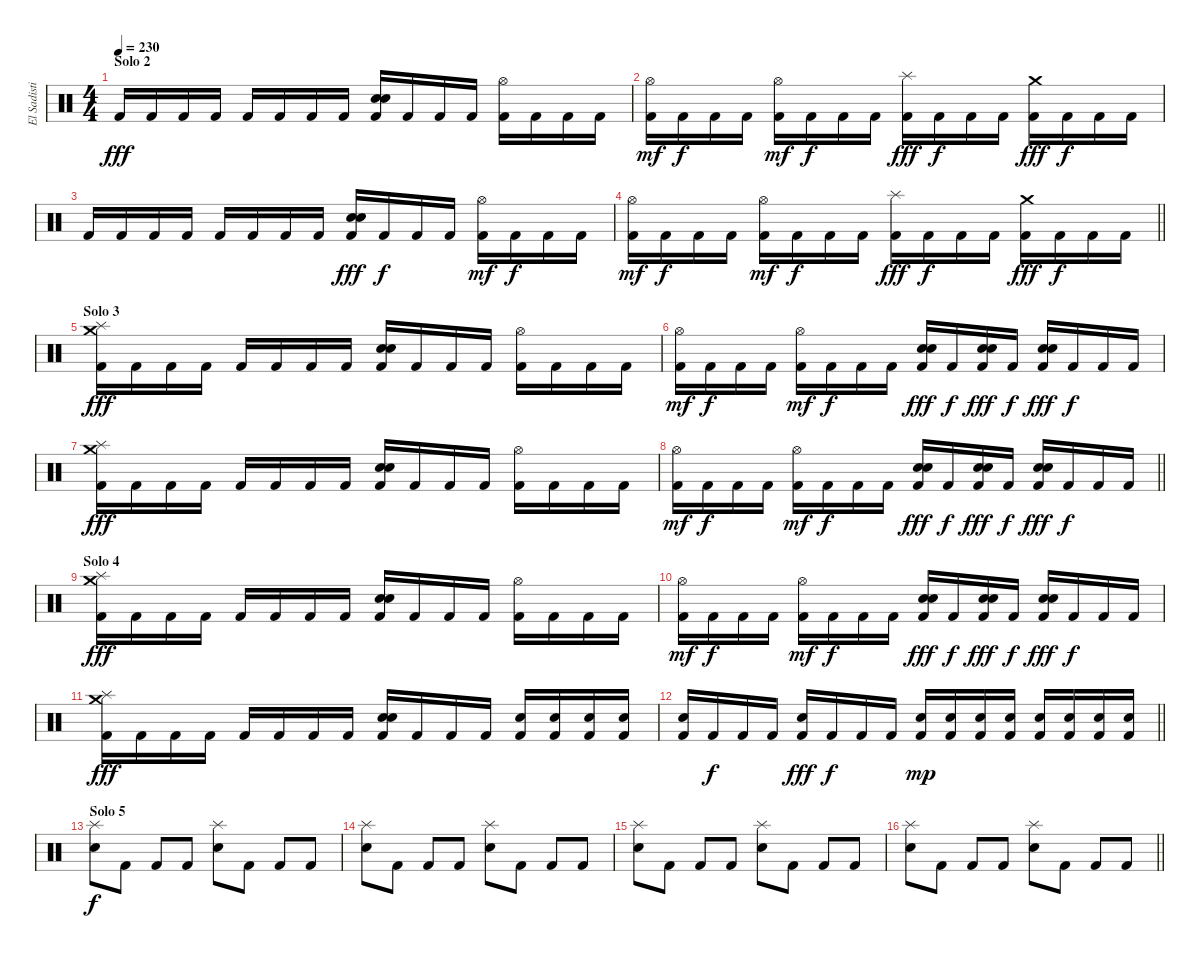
\track ("El Sadistico" "El Sadisti") {instrument percussion}
\staff {score}
\articulation defaults
\ts (4 4)
\section ("" "Solo 2")
\tempo 230
\clef neutral
\ks c "Kick (hit) 2".16{dy fff} "Kick (hit) 2".16 "Kick (hit) 2".16 "Kick (hit) 2".16 "Kick (hit) 2".16 "Kick (hit) 2".16 "Kick (hit) 2".16 "Kick (hit) 2".16
("Snare (hit) 2" "Electric Snare (hit)" "Kick (hit) 2").16 "Kick (hit) 2".16 "Kick (hit) 2".16 "Kick (hit) 2".16 ("Hi-Hat (open)" "Kick (hit) 2").16 "Kick (hit) 2".16 "Kick (hit) 2".16 "Kick (hit) 2".16 |
("Hi-Hat (open)" "Kick (hit) 2").16{dy mf} "Kick (hit) 2".16{dy f} "Kick (hit) 2".16 "Kick (hit) 2".16 ("Hi-Hat (open)" "Kick (hit) 2").16{dy mf} "Kick (hit) 2".16{dy f} "Kick (hit) 2".16 "Kick (hit) 2".16 ("Splash (hit)" "Kick (hit) 2").16{dy fff} "Kick (hit) 2".16{dy f} "Kick (hit) 2".16 "Kick (hit) 2".16 ("Crash medium (hit)" "Kick (hit) 2").16{dy fff} "Kick (hit) 2".16{dy f} "Kick (hit) 2".16 "Kick (hit) 2".16 |
"Kick (hit) 2".16 "Kick (hit) 2".16 "Kick (hit) 2".16 "Kick (hit) 2".16 "Kick (hit) 2".16 "Kick (hit) 2".16 "Kick (hit) 2".16 "Kick (hit) 2".16 ("Snare (hit) 2" "Electric Snare (hit)" "Kick (hit) 2").16{dy fff} "Kick (hit) 2".16{dy f} "Kick (hit) 2".16 "Kick (hit) 2".16 ("Hi-Hat (open)" "Kick (hit) 2").16{dy mf} "Kick (hit) 2".16{dy f} "Kick (hit) 2".16 "Kick (hit) 2".16 |
\barLineRight lightlight
("Hi-Hat (open)" "Kick (hit) 2").16{dy mf} "Kick (hit) 2".16{dy f} "Kick (hit) 2".16 "Kick (hit) 2".16 ("Hi-Hat (open)" "Kick (hit) 2").16{dy mf} "Kick (hit) 2".16{dy f} "Kick (hit) 2".16 "Kick (hit) 2".16 ("Splash (hit)" "Kick (hit) 2").16{dy fff} "Kick (hit) 2".16{dy f} "Kick (hit) 2".16 "Kick (hit) 2".16 ("Crash medium (hit)" "Kick (hit) 2").16{dy fff} "Kick (hit) 2".16{dy f} "Kick (hit) 2".16 "Kick (hit) 2".16 |
\section ("" "Solo 3")
("Crash medium (hit)" "Splash (hit)" "Kick (hit) 2").16{dy fff} "Kick (hit) 2".16 "Kick (hit) 2".16 "Kick (hit) 2".16 "Kick (hit) 2".16 "Kick (hit) 2".16 "Kick (hit) 2".16 "Kick (hit) 2".16 ("Snare (hit) 2" "Electric Snare (hit)" "Kick (hit) 2").16 "Kick (hit) 2".16 "Kick (hit) 2".16 "Kick (hit) 2".16 ("Hi-Hat (open)" "Kick (hit) 2").16 "Kick (hit) 2".16 "Kick (hit) 2".16 "Kick (hit) 2".16 |
("Hi-Hat (open)" "Kick (hit) 2").16{dy mf} "Kick (hit) 2".16{dy f} "Kick (hit) 2".16 "Kick (hit) 2".16 ("Hi-Hat (open)" "Kick (hit) 2").16{dy mf} "Kick (hit) 2".16{dy f} "Kick (hit) 2".16 "Kick (hit) 2".16 ("Electric Snare (hit)" "Snare (hit) 2" "Kick (hit) 2").16{dy fff} "Kick (hit) 2".16{dy f} ("Electric Snare (hit)" "Snare (hit) 2" "Kick (hit) 2").16{dy fff} "Kick (hit) 2".16{dy f} ("Electric Snare (hit)" "Snare (hit) 2" "Kick (hit) 2").16{dy fff} "Kick (hit) 2".16{dy f} "Kick (hit) 2".16 "Kick (hit) 2".16 |
("Crash medium (hit)" "Splash (hit)" "Kick (hit) 2").16{dy fff} "Kick (hit) 2".16 "Kick (hit) 2".16 "Kick (hit) 2".16 "Kick (hit) 2".16 "Kick (hit) 2".16 "Kick (hit) 2".16 "Kick (hit) 2".16 ("Snare (hit) 2" "Electric Snare (hit)" "Kick (hit) 2").16 "Kick (hit) 2".16 "Kick (hit) 2".16 "Kick (hit) 2".16 ("Hi-Hat (open)" "Kick (hit) 2").16 "Kick (hit) 2".16 "Kick (hit) 2".16 "Kick (hit) 2".16 |
\barLineRight lightlight
("Hi-Hat (open)" "Kick (hit) 2").16{dy mf} "Kick (hit) 2".16{dy f} "Kick (hit) 2".16 "Kick (hit) 2".16 ("Hi-Hat (open)" "Kick (hit) 2").16{dy mf} "Kick (hit) 2".16{dy f} "Kick (hit) 2".16 "Kick (hit) 2".16 ("Electric Snare (hit)" "Snare (hit) 2" "Kick (hit) 2").16{dy fff} "Kick (hit) 2".16{dy f} ("Electric Snare (hit)" "Snare (hit) 2" "Kick (hit) 2").16{dy fff} "Kick (hit) 2".16{dy f} ("Electric Snare (hit)" "Snare (hit) 2" "Kick (hit) 2").16{dy fff} "Kick (hit) 2".16{dy f} "Kick (hit) 2".16 "Kick (hit) 2".16 |
\section ("" "Solo 4")
("Crash medium (hit)" "Splash (hit)" "Kick (hit) 2").16{dy fff} "Kick (hit) 2".16 "Kick (hit) 2".16 "Kick (hit) 2".16 "Kick (hit) 2".16 "Kick (hit) 2".16 "Kick (hit) 2".16 "Kick (hit) 2".16 ("Snare (hit) 2" "Electric Snare (hit)" "Kick (hit) 2").16 "Kick (hit) 2".16 "Kick (hit) 2".16 "Kick (hit) 2".16 ("Hi-Hat (open)" "Kick (hit) 2").16 "Kick (hit) 2".16 "Kick (hit) 2".16 "Kick (hit) 2".16 |
("Hi-Hat (open)" "Kick (hit) 2").16{dy mf} "Kick (hit) 2".16{dy f} "Kick (hit) 2".16 "Kick (hit) 2".16 ("Hi-Hat (open)" "Kick (hit) 2").16{dy mf} "Kick (hit) 2".16{dy f} "Kick (hit) 2".16 "Kick (hit) 2".16 ("Electric Snare (hit)" "Snare (hit) 2" "Kick (hit) 2").16{dy fff} "Kick (hit) 2".16{dy f} ("Electric Snare (hit)" "Snare (hit) 2" "Kick (hit) 2").16{dy fff} "Kick (hit) 2".16{dy f} ("Electric Snare (hit)" "Snare (hit) 2" "Kick (hit) 2").16{dy fff} "Kick (hit) 2".16{dy f} "Kick (hit) 2".16 "Kick (hit) 2".16 |
("Crash medium (hit)" "Splash (hit)" "Kick (hit) 2").16{dy fff} "Kick (hit) 2".16 "Kick (hit) 2".16 "Kick (hit) 2".16 "Kick (hit) 2".16 "Kick (hit) 2".16 "Kick (hit) 2".16 "Kick (hit) 2".16 ("Snare (hit) 2" "Electric Snare (hit)" "Kick (hit) 2").16 "Kick (hit) 2".16 "Kick (hit) 2".16 "Kick (hit) 2".16 ("Snare (hit) 2" "Kick (hit) 2").16 ("Snare (hit) 2" "Kick (hit) 2").16 ("Snare (hit) 2" "Kick (hit) 2").16 ("Snare (hit) 2" "Kick (hit) 2").16 |
\barLineRight lightlight
("Snare (hit) 2" "Kick (hit) 2").16 "Kick (hit) 2".16{dy f} "Kick (hit) 2".16 "Kick (hit) 2".16 ("Snare (hit) 2" "Kick (hit) 2").16{dy fff} "Kick (hit) 2".16{dy f} "Kick (hit) 2".16 "Kick (hit) 2".16 ("Snare (hit) 2" "Kick (hit) 2").16{dy mp} ("Snare (hit) 2" "Kick (hit) 2").16 ("Snare (hit) 2" "Kick (hit) 2").16 ("Snare (hit) 2" "Kick (hit) 2").16 ("Snare (hit) 2" "Kick (hit) 2").16 ("Snare (hit) 2" "Kick (hit) 2").16 ("Snare (hit) 2" "Kick (hit) 2").16 ("Snare (hit) 2" "Kick (hit) 2").16 |
\section ("" "Solo 5")
("Splash (hit)" "Electric Snare (hit)").8{dy f} "Kick (hit) 2".8 "Kick (hit) 2".8 "Kick (hit) 2".8 ("Splash (hit)" "Electric Snare (hit)").8 "Kick (hit) 2".8 "Kick (hit) 2".8 "Kick (hit) 2".8 |
("Splash (hit)" "Electric Snare (hit)").8 "Kick (hit) 2".8 "Kick (hit) 2".8 "Kick (hit) 2".8 ("Splash (hit)" "Electric Snare (hit)").8 "Kick (hit) 2".8 "Kick (hit) 2".8 "Kick (hit) 2".8 |
("Splash (hit)" "Electric Snare (hit)").8 "Kick (hit) 2".8 "Kick (hit) 2".8 "Kick (hit) 2".8 ("Splash (hit)" "Electric Snare (hit)").8 "Kick (hit) 2".8 "Kick (hit) 2".8 "Kick (hit) 2".8 |
\barLineRight lightlight
("Splash (hit)" "Electric Snare (hit)").8 "Kick (hit) 2".8 "Kick (hit) 2".8 "Kick (hit) 2".8 ("Splash (hit)" "Electric Snare (hit)").8 "Kick (hit) 2".8 "Kick (hit) 2".8 "Kick (hit) 2".8
